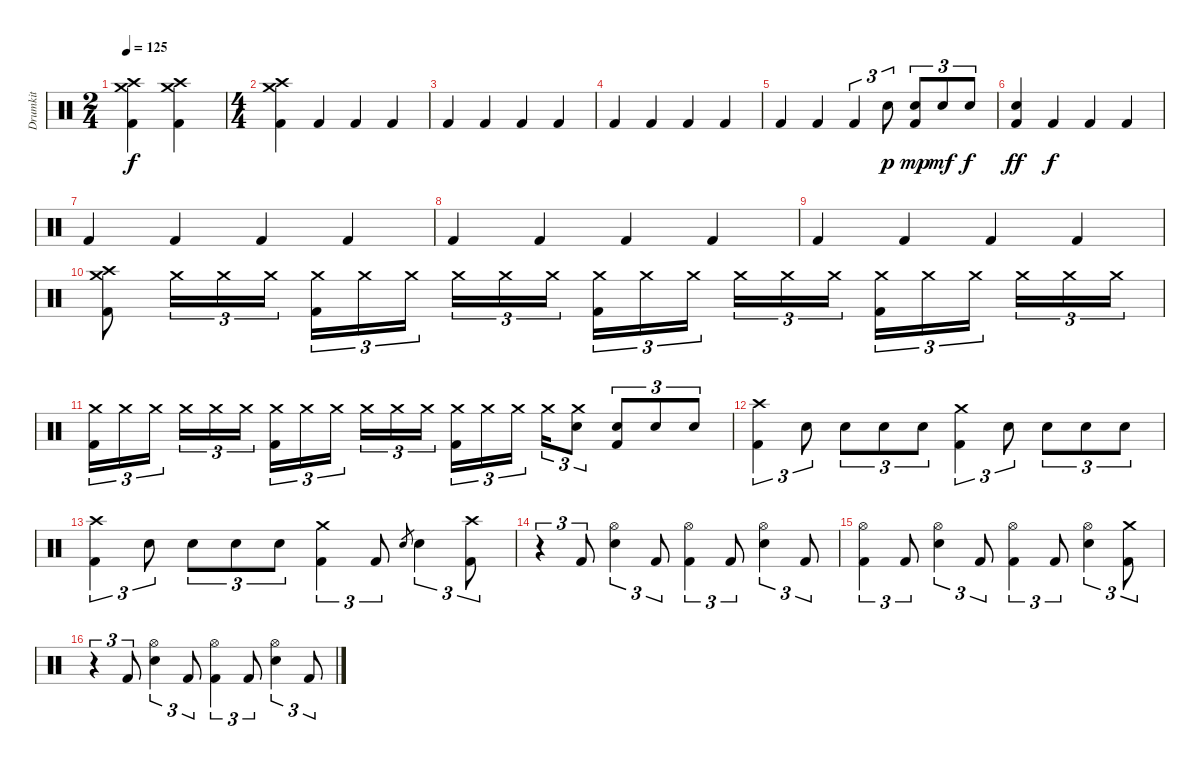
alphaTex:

\track ("Drumkit" "Drumkit") {instrument percussion}
\staff {score}
\articulation defaults
\ts (2 4)
\tempo 125
\clef neutral
\ks c
("Crash high (hit)" "Crash medium (hit)" "Kick (hit) 2").4{dy f} ("Crash high (hit)" "Crash medium (hit)" "Kick (hit) 2").4 |
\ts (4 4)
("Crash high (hit)" "Crash medium (hit)" "Kick (hit) 2").4 "Kick (hit) 2".4 "Kick (hit) 2".4 "Kick (hit) 2".4 |
"Kick (hit) 2".4 "Kick (hit) 2".4 "Kick (hit) 2".4 "Kick (hit) 2".4 |
"Kick (hit) 2".4 "Kick (hit) 2".4 "Kick (hit) 2".4 "Kick (hit) 2".4 |
"Kick (hit) 2".4 "Kick (hit) 2".4 "Kick (hit) 2".4{tu (3 2)} "Electric Snare (hit)".8{tu (3 2) dy p} ("Electric Snare (hit)" "Kick (hit) 2").8{tu (3 2) dy mp} "Electric Snare (hit)".8{tu (3 2) dy mf} "Electric Snare (hit)".8{tu (3 2) dy f} |
("Electric Snare (hit)" "Kick (hit) 2").4{dy ff} "Kick (hit) 2".4{dy f} "Kick (hit) 2".4 "Kick (hit) 2".4 |
"Kick (hit) 2".4 "Kick (hit) 2".4 "Kick (hit) 2".4 "Kick (hit) 2".4 |
"Kick (hit) 2".4 "Kick (hit) 2".4 "Kick (hit) 2".4 "Kick (hit) 2".4 |
"Kick (hit) 2".4 "Kick (hit) 2".4 "Kick (hit) 2".4 "Kick (hit) 2".4 |
("Crash high (hit)" "Crash medium (hit)" "Kick (hit) 2").8 "Crash medium (hit)".16{tu (3 2)} "Crash medium (hit)".16{tu (3 2)} "Crash medium (hit)".16{tu (3 2)} ("Crash medium (hit)" "Kick (hit) 2").16{tu (3 2)} "Crash medium (hit)".16{tu (3 2)} "Crash medium (hit)".16{tu (3 2) beam splitsecondary} "Crash medium (hit)".16{tu (3 2)} "Crash medium (hit)".16{tu (3 2)} "Crash medium (hit)".16{tu (3 2)} ("Crash medium (hit)" "Kick (hit) 2").16{tu (3 2)} "Crash medium (hit)".16{tu (3 2)} "Crash medium (hit)".16{tu (3 2) beam splitsecondary} "Crash medium (hit)".16{tu (3 2)} "Crash medium (hit)".16{tu (3 2)} "Crash medium (hit)".16{tu (3 2)} ("Crash medium (hit)" "Kick (hit) 2").16{tu (3 2)} "Crash medium (hit)".16{tu (3 2)} "Crash medium (hit)".16{tu (3 2) beam splitsecondary} "Crash medium (hit)".16{tu (3 2)} "Crash medium (hit)".16{tu (3 2)} "Crash medium (hit)".16{tu (3 2)} |
("Crash medium (hit)" "Kick (hit) 2").16{tu (3 2)} "Crash medium (hit)".16{tu (3 2)} "Crash medium (hit)".16{tu (3 2) beam splitsecondary} "Crash medium (hit)".16{tu (3 2)} "Crash medium (hit)".16{tu (3 2)} "Crash medium (hit)".16{tu (3 2)} ("Crash medium (hit)" "Kick (hit) 2").16{tu (3 2)} "Crash medium (hit)".16{tu (3 2)} "Crash medium (hit)".16{tu (3 2) beam splitsecondary} "Crash medium (hit)".16{tu (3 2)} "Crash medium (hit)".16{tu (3 2)} "Crash medium (hit)".16{tu (3 2)} ("Crash medium (hit)" "Kick (hit) 2").16{tu (3 2)} "Crash medium (hit)".16{tu (3 2)} "Crash medium (hit)".16{tu (3 2) beam splitsecondary} "Crash medium (hit)".16{tu (3 2)} ("Crash medium (hit)" "Electric Snare (hit)").8{tu (3 2)} ("Electric Snare (hit)" "Kick (hit) 2").8{tu (3 2)} "Electric Snare (hit)".8{tu (3 2)} "Electric Snare (hit)".8{tu (3 2)} |
("Crash high (hit)" "Kick (hit) 2").4{tu (3 2)} "Electric Snare (hit)".8{tu (3 2)} "Electric Snare (hit)".8{tu (3 2)} "Electric Snare (hit)".8{tu (3 2)} "Electric Snare (hit)".8{tu (3 2)} ("Crash medium (hit)" "Kick (hit) 2").4{tu (3 2)} "Electric Snare (hit)".8{tu (3 2)} "Electric Snare (hit)".8{tu (3 2)} "Electric Snare (hit)".8{tu (3 2)} "Electric Snare (hit)".8{tu (3 2)} |
("Crash high (hit)" "Kick (hit) 2").4{tu (3 2)} "Electric Snare (hit)".8{tu (3 2)} "Electric Snare (hit)".8{tu (3 2)} "Electric Snare (hit)".8{tu (3 2)} "Electric Snare (hit)".8{tu (3 2)} ("Crash medium (hit)" "Kick (hit) 2").4{tu (3 2)} "Kick (hit) 2".8{tu (3 2)} "Electric Snare (hit)".8{gr} "Electric Snare (hit)".4{tu (3 2)} ("Crash high (hit)" "Kick (hit) 2").8{tu (3 2)} |
r.4{tu (3 2)} "Kick (hit) 2".8{tu (3 2)} ("Hi-Hat (open)" "Electric Snare (hit)").4{tu (3 2)} "Kick (hit) 2".8{tu (3 2)} ("Hi-Hat (open)" "Kick (hit) 2").4{tu (3 2)} "Kick (hit) 2".8{tu (3 2)} ("Hi-Hat (open)" "Electric Snare (hit)").4{tu (3 2)} "Kick (hit) 2".8{tu (3 2)} |
("Hi-Hat (open)" "Kick (hit) 2").4{tu (3 2)} "Kick (hit) 2".8{tu (3 2)} ("Hi-Hat (open)" "Electric Snare (hit)").4{tu (3 2)} "Kick (hit) 2".8{tu (3 2)} ("Hi-Hat (open)" "Kick (hit) 2").4{tu (3 2)} "Kick (hit) 2".8{tu (3 2)} ("Hi-Hat (open)" "Electric Snare (hit)").4{tu (3 2)} ("Crash medium (hit)" "Kick (hit) 2").8{tu (3 2)} |
r.4{tu (3 2)} "Kick (hit) 2".8{tu (3 2)} ("Hi-Hat (open)" "Electric Snare (hit)").4{tu (3 2)} "Kick (hit) 2".8{tu (3 2)} ("Hi-Hat (open)" "Kick (hit) 2").4{tu (3 2)} "Kick (hit) 2".8{tu (3 2)} ("Hi-Hat (open)" "Electric Snare (hit)").4{tu (3 2)} "Kick (hit) 2".8{tu (3 2)}
